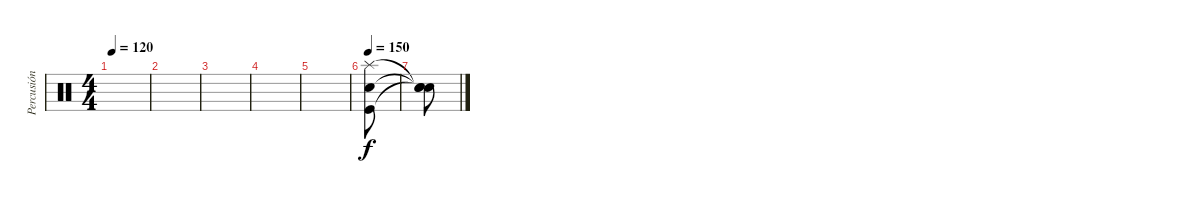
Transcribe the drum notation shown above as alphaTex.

\track ("Percusión" "Percusión") {instrument percussion}
\staff {score}
\articulation defaults
\ts (4 4)
\tempo 120
\clef neutral
\ks c
|
|
|
|
|
\tempo 150
("Splash (hit)" "Electric Snare (hit)" "Kick (hit)").8 |
("Snare (hit)"{t} "Snare (hit)"{t} "Snare (hit)"{t}).8
